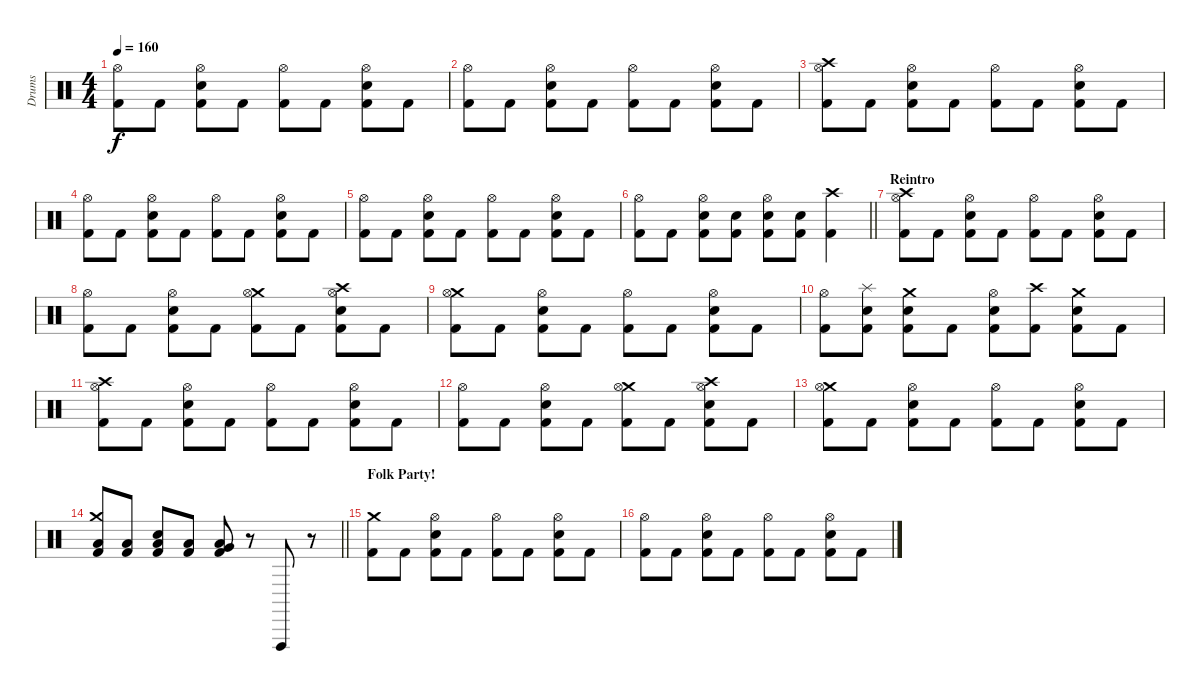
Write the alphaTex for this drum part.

\track ("Drums" "Drums") {instrument percussion}
\staff {score}
\articulation defaults
\ts (4 4)
\tempo 160
\clef neutral
\ks c
("Hi-Hat (open)" "Kick (hit) 2").8{dy f} "Kick (hit) 2".8 ("Hi-Hat (open)" "Snare (hit) 2" "Kick (hit) 2").8 "Kick (hit) 2".8 ("Hi-Hat (open)" "Kick (hit) 2").8 "Kick (hit) 2".8 ("Hi-Hat (open)" "Snare (hit) 2" "Kick (hit) 2").8 "Kick (hit) 2".8 |
("Hi-Hat (open)" "Kick (hit) 2").8 "Kick (hit) 2".8 ("Hi-Hat (open)" "Snare (hit) 2" "Kick (hit) 2").8 "Kick (hit) 2".8 ("Hi-Hat (open)" "Kick (hit) 2").8 "Kick (hit) 2".8 ("Hi-Hat (open)" "Snare (hit) 2" "Kick (hit) 2").8 "Kick (hit) 2".8 |
("Crash high (hit)" "Hi-Hat (open)" "Kick (hit) 2").8 "Kick (hit) 2".8 ("Hi-Hat (open)" "Snare (hit) 2" "Kick (hit) 2").8 "Kick (hit) 2".8 ("Hi-Hat (open)" "Kick (hit) 2").8 "Kick (hit) 2".8 ("Hi-Hat (open)" "Snare (hit) 2" "Kick (hit) 2").8 "Kick (hit) 2".8 |
("Hi-Hat (open)" "Kick (hit) 2").8 "Kick (hit) 2".8 ("Hi-Hat (open)" "Snare (hit) 2" "Kick (hit) 2").8 "Kick (hit) 2".8 ("Hi-Hat (open)" "Kick (hit) 2").8 "Kick (hit) 2".8 ("Hi-Hat (open)" "Snare (hit) 2" "Kick (hit) 2").8 "Kick (hit) 2".8 |
("Hi-Hat (open)" "Kick (hit) 2").8 "Kick (hit) 2".8 ("Hi-Hat (open)" "Snare (hit) 2" "Kick (hit) 2").8 "Kick (hit) 2".8 ("Hi-Hat (open)" "Kick (hit) 2").8 "Kick (hit) 2".8 ("Hi-Hat (open)" "Snare (hit) 2" "Kick (hit) 2").8 "Kick (hit) 2".8 |
\barLineRight lightlight
("Hi-Hat (open)" "Kick (hit) 2").8 "Kick (hit) 2".8 ("Hi-Hat (open)" "Snare (hit) 2" "Kick (hit) 2").8 ("Snare (hit) 2" "Kick (hit) 2").8 ("Hi-Hat (open)" "Snare (hit) 2" "Kick (hit) 2").8 ("Snare (hit) 2" "Kick (hit) 2").8 ("Crash high (hit)" "Kick (hit) 2").4 |
\section ("" "Reintro")
("Crash high (hit)" "Hi-Hat (open)" "Kick (hit) 2").8 "Kick (hit) 2".8 ("Hi-Hat (open)" "Snare (hit) 2" "Kick (hit) 2").8 "Kick (hit) 2".8 ("Hi-Hat (open)" "Kick (hit) 2").8 "Kick (hit) 2".8 ("Hi-Hat (open)" "Snare (hit) 2" "Kick (hit) 2").8 "Kick (hit) 2".8 |
("Hi-Hat (open)" "Kick (hit) 2").8 "Kick (hit) 2".8 ("Hi-Hat (open)" "Snare (hit) 2" "Kick (hit) 2").8 "Kick (hit) 2".8 ("Crash medium (hit)" "Hi-Hat (open)" "Kick (hit) 2").8 "Kick (hit) 2".8 ("Crash high (hit)" "Hi-Hat (open)" "Snare (hit) 2" "Kick (hit) 2").8 "Kick (hit) 2".8 |
("Crash medium (hit)" "Hi-Hat (open)" "Kick (hit) 2").8 "Kick (hit) 2".8 ("Hi-Hat (open)" "Snare (hit) 2" "Kick (hit) 2").8 "Kick (hit) 2".8 ("Hi-Hat (open)" "Kick (hit) 2").8 "Kick (hit) 2".8 ("Hi-Hat (open)" "Snare (hit) 2" "Kick (hit) 2").8 "Kick (hit) 2".8 |
("Hi-Hat (open)" "Kick (hit) 2").8 ("Splash (hit)" "Snare (hit) 2" "Kick (hit) 2").8 ("Crash medium (hit)" "Snare (hit) 2" "Kick (hit) 2").8 "Kick (hit) 2".8 ("Hi-Hat (open)" "Snare (hit) 2" "Kick (hit) 2").8 ("Crash high (hit)" "Kick (hit) 2").8 ("Crash medium (hit)" "Snare (hit) 2" "Kick (hit) 2").8 "Kick (hit) 2".8 |
("Crash high (hit)" "Hi-Hat (open)" "Kick (hit) 2").8 "Kick (hit) 2".8 ("Hi-Hat (open)" "Snare (hit) 2" "Kick (hit) 2").8 "Kick (hit) 2".8 ("Hi-Hat (open)" "Kick (hit) 2").8 "Kick (hit) 2".8 ("Hi-Hat (open)" "Snare (hit) 2" "Kick (hit) 2").8 "Kick (hit) 2".8 |
("Hi-Hat (open)" "Kick (hit) 2").8 "Kick (hit) 2".8 ("Hi-Hat (open)" "Snare (hit) 2" "Kick (hit) 2").8 "Kick (hit) 2".8 ("Crash medium (hit)" "Hi-Hat (open)" "Kick (hit) 2").8 "Kick (hit) 2".8 ("Crash high (hit)" "Hi-Hat (open)" "Snare (hit) 2" "Kick (hit) 2").8 "Kick (hit) 2".8 |
("Crash medium (hit)" "Hi-Hat (open)" "Kick (hit) 2").8 "Kick (hit) 2".8 ("Hi-Hat (open)" "Snare (hit) 2" "Kick (hit) 2").8 "Kick (hit) 2".8 ("Hi-Hat (open)" "Kick (hit) 2").8 "Kick (hit) 2".8 ("Hi-Hat (open)" "Snare (hit) 2" "Kick (hit) 2").8 "Kick (hit) 2".8 |
\barLineRight lightlight
("Crash medium (hit)" "Low Floor Tom (hit)" "Kick (hit) 2").8 ("Low Floor Tom (hit)" "Kick (hit) 2").8 ("Snare (hit) 2" "Low Floor Tom (hit)" "Kick (hit) 2").8 ("Low Floor Tom (hit)" "Kick (hit) 2").8 ("Very Low Tom (hit)" "Low Floor Tom (hit)" "Kick (hit) 2").8 r.8 "Vibraslap (hit)".8 r.8 |
\section ("" "Folk Party!")
("Crash medium (hit)" "Kick (hit) 2").8 "Kick (hit) 2".8 ("Hi-Hat (open)" "Snare (hit) 2" "Kick (hit) 2").8 "Kick (hit) 2".8 ("Hi-Hat (open)" "Kick (hit) 2").8 "Kick (hit) 2".8 ("Hi-Hat (open)" "Snare (hit) 2" "Kick (hit) 2").8 "Kick (hit) 2".8 |
("Hi-Hat (open)" "Kick (hit) 2").8 "Kick (hit) 2".8 ("Hi-Hat (open)" "Snare (hit) 2" "Kick (hit) 2").8 "Kick (hit) 2".8 ("Hi-Hat (open)" "Kick (hit) 2").8 "Kick (hit) 2".8 ("Hi-Hat (open)" "Snare (hit) 2" "Kick (hit) 2").8 "Kick (hit) 2".8
